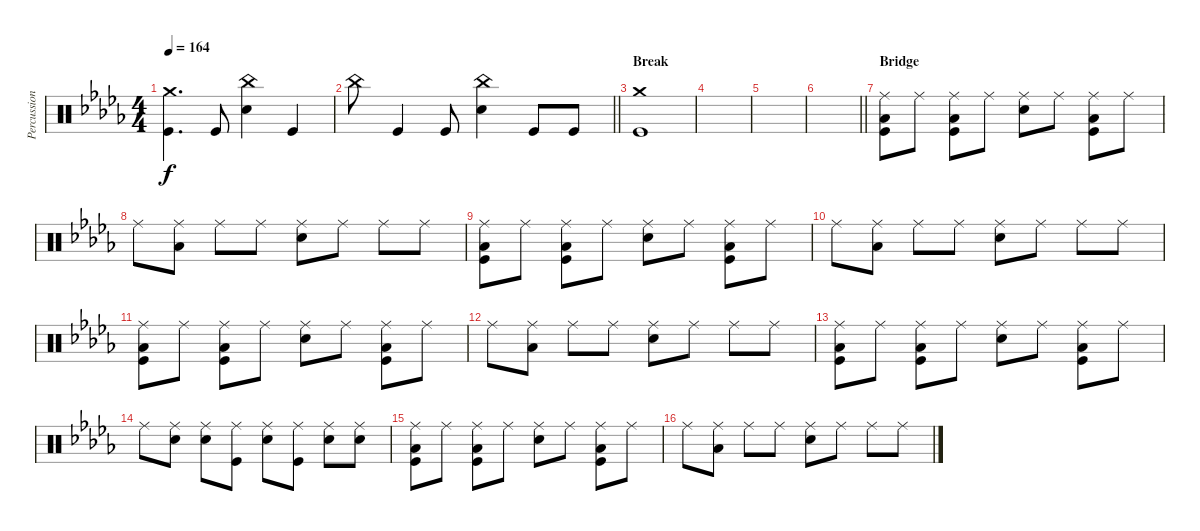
\track ("Percussion" "Percussion") {instrument percussion}
\staff {score}
\articulation defaults
\ts (4 4)
\tempo 164
\clef neutral
\ks db
("Crash medium (hit)" "Kick (hit)").4{d dy f} "Kick (hit)".8 ("China (hit)" "Electric Snare (hit)").4 "Kick (hit)".4 |
\barLineRight lightlight "China (hit)".8 "Kick (hit)".4 "Kick (hit)".8
("China (hit)" "Electric Snare (hit)").4 "Kick (hit)".8 "Kick (hit)".8 |
\section ("" "Break")
("Crash medium (hit)" "Kick (hit)").1 |
|
|
\barLineRight lightlight
|
\section ("" "Bridge")
("Ride (middle)" "Low Floor Tom (hit)" "Kick (hit)").8 "Ride (middle)".8 ("Ride (middle)" "Low Floor Tom (hit)" "Kick (hit)").8 "Ride (middle)".8 ("Ride (middle)" "Electric Snare (hit)").8 "Ride (middle)".8 ("Ride (middle)" "Low Floor Tom (hit)" "Kick (hit)").8 "Ride (middle)".8 |
"Ride (middle)".8 ("Ride (middle)" "Low Floor Tom (hit)").8 "Ride (middle)".8 "Ride (middle)".8 ("Ride (middle)" "Electric Snare (hit)").8 "Ride (middle)".8 "Ride (middle)".8 "Ride (middle)".8 |
("Ride (middle)" "Low Floor Tom (hit)" "Kick (hit)").8 "Ride (middle)".8 ("Ride (middle)" "Low Floor Tom (hit)" "Kick (hit)").8 "Ride (middle)".8 ("Ride (middle)" "Electric Snare (hit)").8 "Ride (middle)".8 ("Ride (middle)" "Low Floor Tom (hit)" "Kick (hit)").8 "Ride (middle)".8 |
"Ride (middle)".8 ("Ride (middle)" "Low Floor Tom (hit)").8 "Ride (middle)".8 "Ride (middle)".8 ("Ride (middle)" "Electric Snare (hit)").8 "Ride (middle)".8 "Ride (middle)".8 "Ride (middle)".8 |
("Ride (middle)" "Low Floor Tom (hit)" "Kick (hit)").8 "Ride (middle)".8 ("Ride (middle)" "Low Floor Tom (hit)" "Kick (hit)").8 "Ride (middle)".8 ("Ride (middle)" "Electric Snare (hit)").8 "Ride (middle)".8 ("Ride (middle)" "Low Floor Tom (hit)" "Kick (hit)").8 "Ride (middle)".8 |
"Ride (middle)".8 ("Ride (middle)" "Low Floor Tom (hit)").8 "Ride (middle)".8 "Ride (middle)".8 ("Ride (middle)" "Electric Snare (hit)").8 "Ride (middle)".8 "Ride (middle)".8 "Ride (middle)".8 |
("Ride (middle)" "Low Floor Tom (hit)" "Kick (hit)").8 "Ride (middle)".8 ("Ride (middle)" "Low Floor Tom (hit)" "Kick (hit)").8 "Ride (middle)".8 ("Ride (middle)" "Electric Snare (hit)").8 "Ride (middle)".8 ("Ride (middle)" "Low Floor Tom (hit)" "Kick (hit)").8 "Ride (middle)".8 |
"Ride (middle)".8 ("Ride (middle)" "Electric Snare (hit)").8 ("Ride (middle)" "Electric Snare (hit)").8 ("Ride (middle)" "Kick (hit)").8 ("Ride (middle)" "Electric Snare (hit)").8 ("Ride (middle)" "Kick (hit)").8 ("Ride (middle)" "Electric Snare (hit)").8 ("Ride (middle)" "Electric Snare (hit)").8 |
("Ride (middle)" "Low Floor Tom (hit)" "Kick (hit)").8 "Ride (middle)".8 ("Ride (middle)" "Low Floor Tom (hit)" "Kick (hit)").8 "Ride (middle)".8 ("Ride (middle)" "Electric Snare (hit)").8 "Ride (middle)".8 ("Ride (middle)" "Low Floor Tom (hit)" "Kick (hit)").8 "Ride (middle)".8 |
"Ride (middle)".8 ("Ride (middle)" "Low Floor Tom (hit)").8 "Ride (middle)".8 "Ride (middle)".8 ("Ride (middle)" "Electric Snare (hit)").8 "Ride (middle)".8 "Ride (middle)".8 "Ride (middle)".8
